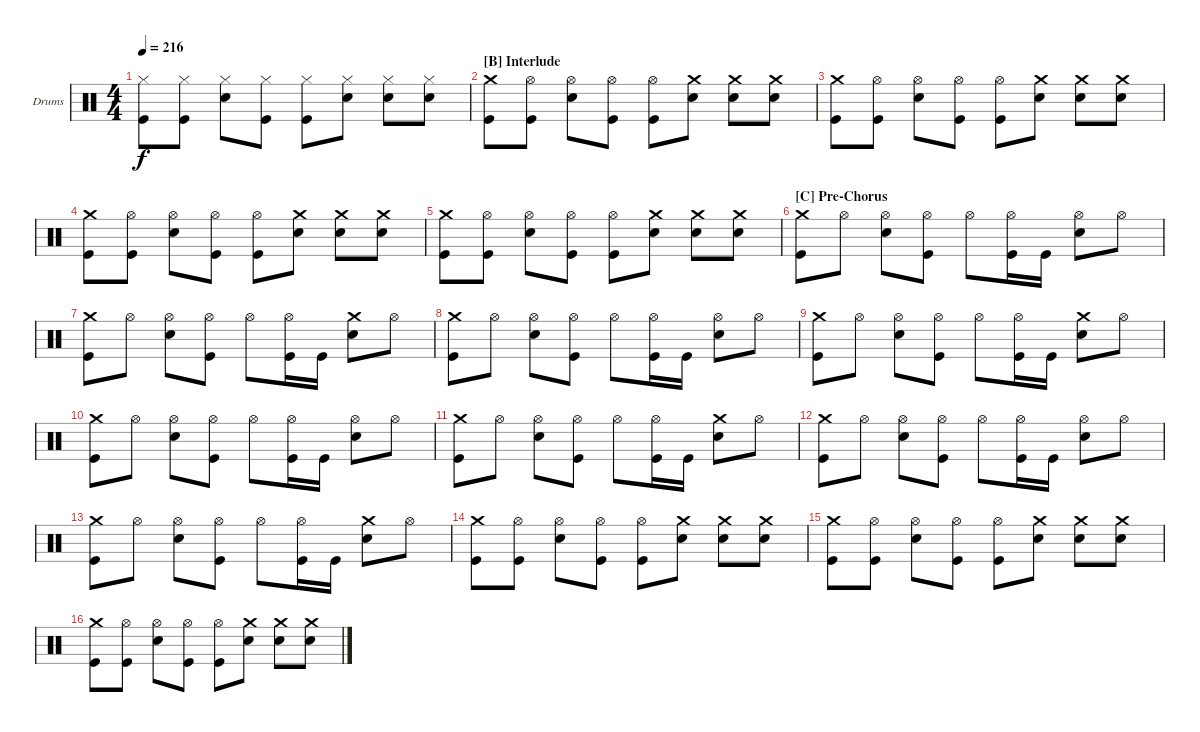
\defaultSystemsLayout 4
\bracketExtendMode groupsimilarinstruments
\firstSystemTrackNameOrientation horizontal
\otherSystemsTrackNameOrientation horizontal
\track ("Drumkit" "Drums") {instrument percussion}
\staff {score}
\articulation defaults
\ts (4 4)
\tempo 216
\clef neutral
\ks c
("Hi-Hat (closed)" "Kick (hit)").8{dy f} ("Hi-Hat (closed)" "Kick (hit)").8 ("Hi-Hat (closed)" "Snare (hit) 2").8 ("Hi-Hat (closed)" "Kick (hit)").8 ("Hi-Hat (closed)" "Kick (hit)").8 ("Hi-Hat (closed)" "Snare (hit) 2").8 ("Hi-Hat (closed)" "Snare (hit) 2").8 ("Hi-Hat (closed)" "Snare (hit) 2").8 |
\section ("B" "Interlude")
("Crash medium (hit)" "Kick (hit)").8 ("Hi-Hat (open)" "Kick (hit)").8 ("Hi-Hat (open)" "Snare (hit) 2").8 ("Hi-Hat (open)" "Kick (hit)").8 ("Hi-Hat (open)" "Kick (hit)").8 ("Crash medium (hit)" "Snare (hit) 2").8 ("Crash medium (hit)" "Snare (hit) 2").8 ("Crash medium (hit)" "Snare (hit) 2").8 |
("Crash medium (hit)" "Kick (hit)").8 ("Hi-Hat (open)" "Kick (hit)").8 ("Hi-Hat (open)" "Snare (hit) 2").8 ("Hi-Hat (open)" "Kick (hit)").8 ("Hi-Hat (open)" "Kick (hit)").8 ("Crash medium (hit)" "Snare (hit) 2").8 ("Crash medium (hit)" "Snare (hit) 2").8 ("Crash medium (hit)" "Snare (hit) 2").8 |
("Crash medium (hit)" "Kick (hit)").8 ("Hi-Hat (open)" "Kick (hit)").8 ("Hi-Hat (open)" "Snare (hit) 2").8 ("Hi-Hat (open)" "Kick (hit)").8 ("Hi-Hat (open)" "Kick (hit)").8 ("Crash medium (hit)" "Snare (hit) 2").8 ("Crash medium (hit)" "Snare (hit) 2").8 ("Crash medium (hit)" "Snare (hit) 2").8 |
("Crash medium (hit)" "Kick (hit)").8 ("Hi-Hat (open)" "Kick (hit)").8 ("Hi-Hat (open)" "Snare (hit) 2").8 ("Hi-Hat (open)" "Kick (hit)").8 ("Hi-Hat (open)" "Kick (hit)").8 ("Crash medium (hit)" "Snare (hit) 2").8 ("Crash medium (hit)" "Snare (hit) 2").8 ("Crash medium (hit)" "Snare (hit) 2").8 |
\section ("C" "Pre-Chorus")
("Crash medium (hit)" "Kick (hit)").8 "Hi-Hat (open)".8 ("Hi-Hat (open)" "Snare (hit) 2").8 ("Hi-Hat (open)" "Kick (hit)").8 "Hi-Hat (open)".8 ("Hi-Hat (open)" "Kick (hit)").16 "Kick (hit)".16 ("Hi-Hat (open)" "Snare (hit) 2").8 "Hi-Hat (open)".8 |
("Crash medium (hit)" "Kick (hit)").8 "Hi-Hat (open)".8 ("Hi-Hat (open)" "Snare (hit) 2").8 ("Hi-Hat (open)" "Kick (hit)").8 "Hi-Hat (open)".8 ("Hi-Hat (open)" "Kick (hit)").16 "Kick (hit)".16 ("Crash medium (hit)" "Snare (hit) 2").8 "Hi-Hat (open)".8 |
("Crash medium (hit)" "Kick (hit)").8 "Hi-Hat (open)".8 ("Hi-Hat (open)" "Snare (hit) 2").8 ("Hi-Hat (open)" "Kick (hit)").8 "Hi-Hat (open)".8 ("Hi-Hat (open)" "Kick (hit)").16 "Kick (hit)".16 ("Hi-Hat (open)" "Snare (hit) 2").8 "Hi-Hat (open)".8 |
("Crash medium (hit)" "Kick (hit)").8 "Hi-Hat (open)".8 ("Hi-Hat (open)" "Snare (hit) 2").8 ("Hi-Hat (open)" "Kick (hit)").8 "Hi-Hat (open)".8 ("Hi-Hat (open)" "Kick (hit)").16 "Kick (hit)".16 ("Crash medium (hit)" "Snare (hit) 2").8 "Hi-Hat (open)".8 |
("Crash medium (hit)" "Kick (hit)").8 "Hi-Hat (open)".8 ("Hi-Hat (open)" "Snare (hit) 2").8 ("Hi-Hat (open)" "Kick (hit)").8 "Hi-Hat (open)".8 ("Hi-Hat (open)" "Kick (hit)").16 "Kick (hit)".16 ("Hi-Hat (open)" "Snare (hit) 2").8 "Hi-Hat (open)".8 |
("Crash medium (hit)" "Kick (hit)").8 "Hi-Hat (open)".8 ("Hi-Hat (open)" "Snare (hit) 2").8 ("Hi-Hat (open)" "Kick (hit)").8 "Hi-Hat (open)".8 ("Hi-Hat (open)" "Kick (hit)").16 "Kick (hit)".16 ("Crash medium (hit)" "Snare (hit) 2").8 "Hi-Hat (open)".8 |
("Crash medium (hit)" "Kick (hit)").8 "Hi-Hat (open)".8 ("Hi-Hat (open)" "Snare (hit) 2").8 ("Hi-Hat (open)" "Kick (hit)").8 "Hi-Hat (open)".8 ("Hi-Hat (open)" "Kick (hit)").16 "Kick (hit)".16 ("Hi-Hat (open)" "Snare (hit) 2").8 "Hi-Hat (open)".8 |
("Crash medium (hit)" "Kick (hit)").8 "Hi-Hat (open)".8 ("Hi-Hat (open)" "Snare (hit) 2").8 ("Hi-Hat (open)" "Kick (hit)").8 "Hi-Hat (open)".8 ("Hi-Hat (open)" "Kick (hit)").16 "Kick (hit)".16 ("Crash medium (hit)" "Snare (hit) 2").8 "Hi-Hat (open)".8 |
("Crash medium (hit)" "Kick (hit)").8 ("Hi-Hat (open)" "Kick (hit)").8 ("Hi-Hat (open)" "Snare (hit) 2").8 ("Hi-Hat (open)" "Kick (hit)").8 ("Hi-Hat (open)" "Kick (hit)").8 ("Crash medium (hit)" "Snare (hit) 2").8 ("Crash medium (hit)" "Snare (hit) 2").8 ("Crash medium (hit)" "Snare (hit) 2").8 |
("Crash medium (hit)" "Kick (hit)").8 ("Hi-Hat (open)" "Kick (hit)").8 ("Hi-Hat (open)" "Snare (hit) 2").8 ("Hi-Hat (open)" "Kick (hit)").8 ("Hi-Hat (open)" "Kick (hit)").8 ("Crash medium (hit)" "Snare (hit) 2").8 ("Crash medium (hit)" "Snare (hit) 2").8 ("Crash medium (hit)" "Snare (hit) 2").8 |
("Crash medium (hit)" "Kick (hit)").8 ("Hi-Hat (open)" "Kick (hit)").8 ("Hi-Hat (open)" "Snare (hit) 2").8 ("Hi-Hat (open)" "Kick (hit)").8 ("Hi-Hat (open)" "Kick (hit)").8 ("Crash medium (hit)" "Snare (hit) 2").8 ("Crash medium (hit)" "Snare (hit) 2").8 ("Crash medium (hit)" "Snare (hit) 2").8
